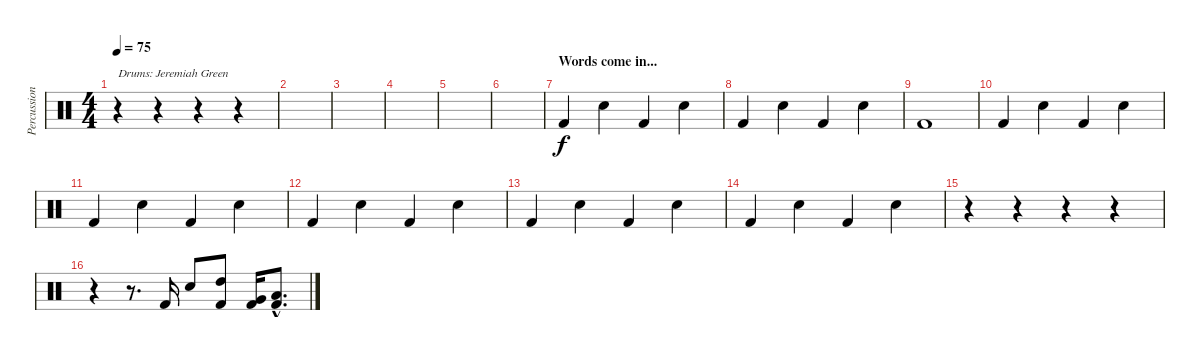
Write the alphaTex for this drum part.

\track ("Percussion . Jeremiah Green" "Percussion") {instrument percussion}
\staff {score}
\articulation defaults
\ts (4 4)
\tempo 75
\clef neutral
\ks c
r.4{txt "Drums: Jeremiah Green" dy f} r.4 r.4 r.4 |
|
|
|
|
|
\section ("" "Words come in...")
"Kick (hit) 2".4 "Electric Snare (hit)".4 "Kick (hit) 2".4 "Electric Snare (hit)".4 |
"Kick (hit) 2".4 "Electric Snare (hit)".4 "Kick (hit) 2".4 "Electric Snare (hit)".4 |
"Kick (hit) 2".1 |
"Kick (hit) 2".4 "Electric Snare (hit)".4 "Kick (hit) 2".4 "Electric Snare (hit)".4 |
"Kick (hit) 2".4 "Electric Snare (hit)".4 "Kick (hit) 2".4 "Electric Snare (hit)".4 |
"Kick (hit) 2".4 "Electric Snare (hit)".4 "Kick (hit) 2".4 "Electric Snare (hit)".4 |
"Kick (hit) 2".4 "Electric Snare (hit)".4 "Kick (hit) 2".4 "Electric Snare (hit)".4 |
"Kick (hit) 2".4 "Electric Snare (hit)".4 "Kick (hit) 2".4 "Electric Snare (hit)".4 |
r.4 r.4 r.4 r.4 |
r.4 r.8{d} "Kick (hit) 2".16 "Electric Snare (hit)".8 ("High Tom (hit)" "Kick (hit) 2").8 ("Very Low Tom (hit)" "Kick (hit) 2").16 ("Low Floor Tom (hit)"{hac} "Kick (hit) 2"{hac}).8{d}
